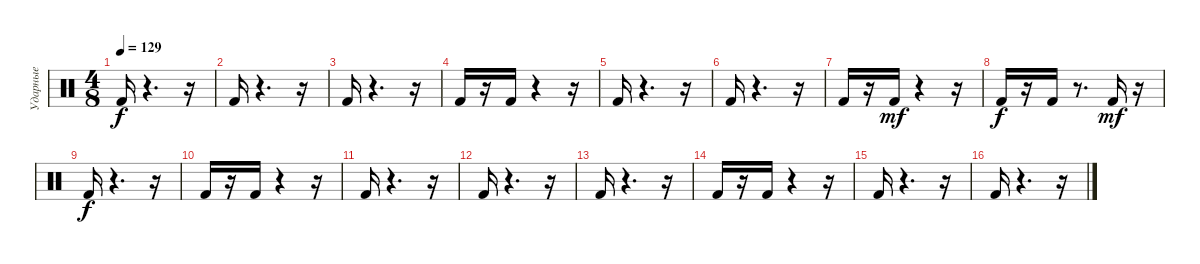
\track ("Ударные" "Ударные") {instrument percussion}
\staff {score}
\articulation defaults
\ts (4 8)
\tempo 129
\clef neutral
\ks c "Kick (hit) 2".16{dy f}
r.4{d} r.16 |
"Kick (hit) 2".16 r.4{d} r.16 |
"Kick (hit) 2".16 r.4{d} r.16 |
"Kick (hit) 2".16 r.16 "Kick (hit) 2".16 r.4 r.16 |
"Kick (hit) 2".16 r.4{d} r.16 |
"Kick (hit) 2".16 r.4{d} r.16 |
"Kick (hit) 2".16 r.16 "Kick (hit) 2".16{dy mf} r.4 r.16 |
"Kick (hit) 2".16{dy f} r.16 "Kick (hit) 2".16 r.8{d} "Kick (hit) 2".16{dy mf} r.16 |
"Kick (hit) 2".16{dy f} r.4{d} r.16 |
"Kick (hit) 2".16 r.16 "Kick (hit) 2".16 r.4 r.16 |
"Kick (hit) 2".16 r.4{d} r.16 |
"Kick (hit) 2".16 r.4{d} r.16 |
"Kick (hit) 2".16 r.4{d} r.16 |
"Kick (hit) 2".16 r.16 "Kick (hit) 2".16 r.4 r.16 |
"Kick (hit) 2".16 r.4{d} r.16 |
"Kick (hit) 2".16 r.4{d} r.16
